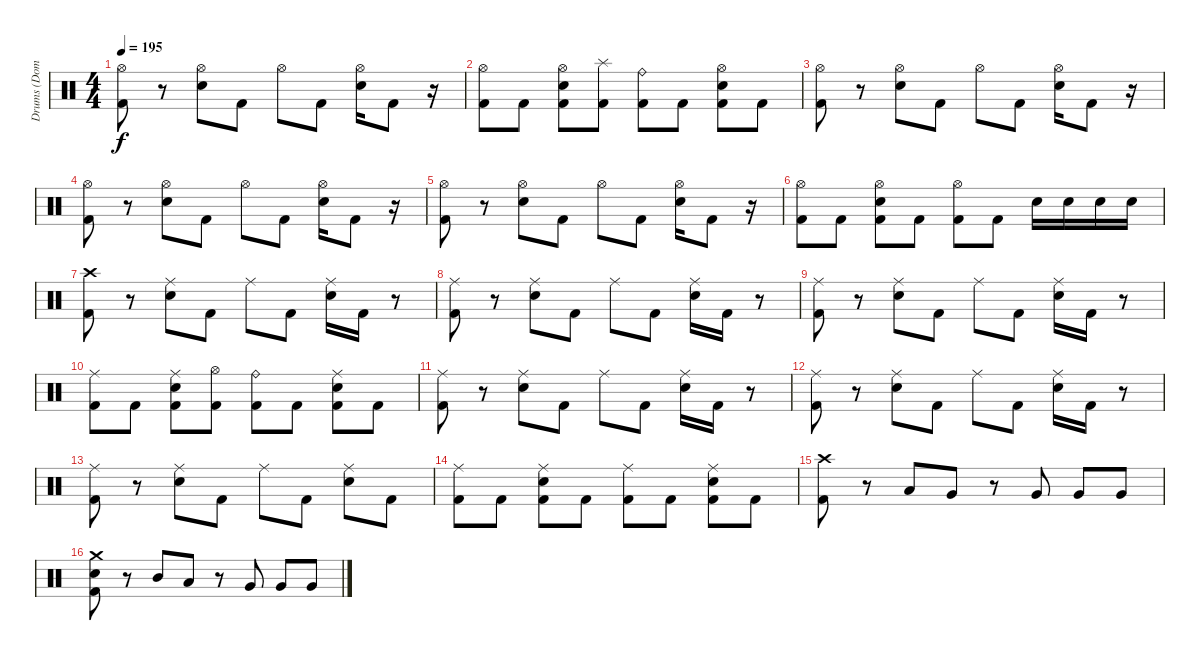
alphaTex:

\track ("Drums (Dominik)" "Drums (Dom") {instrument percussion}
\staff {score}
\articulation defaults
\ts (4 4)
\tempo 195
\clef neutral
\ks c
("Hi-Hat (open)" "Kick (hit) 2").8{dy f} r.8 ("Hi-Hat (open)" "Electric Snare (hit)").8 "Kick (hit) 2".8 "Hi-Hat (open)".8 "Kick (hit) 2".8 ("Hi-Hat (open)" "Electric Snare (hit)").16 "Kick (hit) 2".8 r.16 |
("Hi-Hat (open)" "Kick (hit) 2").8 "Kick (hit) 2".8 ("Hi-Hat (open)" "Electric Snare (hit)" "Kick (hit) 2").8 ("Splash (hit)" "Kick (hit) 2").8 ("Ride (bell)" "Kick (hit) 2").8 "Kick (hit) 2".8 ("Hi-Hat (open)" "Electric Snare (hit)" "Kick (hit) 2").8 "Kick (hit) 2".8 |
("Hi-Hat (open)" "Kick (hit) 2").8 r.8 ("Hi-Hat (open)" "Electric Snare (hit)").8 "Kick (hit) 2".8 "Hi-Hat (open)".8 "Kick (hit) 2".8 ("Hi-Hat (open)" "Electric Snare (hit)").16 "Kick (hit) 2".8 r.16 |
("Hi-Hat (open)" "Kick (hit) 2").8 r.8 ("Hi-Hat (open)" "Electric Snare (hit)").8 "Kick (hit) 2".8 "Hi-Hat (open)".8 "Kick (hit) 2".8 ("Hi-Hat (open)" "Electric Snare (hit)").16 "Kick (hit) 2".8 r.16 |
("Hi-Hat (open)" "Kick (hit) 2").8 r.8 ("Hi-Hat (open)" "Electric Snare (hit)").8 "Kick (hit) 2".8 "Hi-Hat (open)".8 "Kick (hit) 2".8 ("Hi-Hat (open)" "Electric Snare (hit)").16 "Kick (hit) 2".8 r.16 |
("Hi-Hat (open)" "Kick (hit) 2").8 "Kick (hit) 2".8 ("Hi-Hat (open)" "Electric Snare (hit)" "Kick (hit) 2").8 "Kick (hit) 2".8 ("Hi-Hat (open)" "Kick (hit) 2").8 "Kick (hit) 2".8 "Electric Snare (hit)".16 "Electric Snare (hit)".16 "Electric Snare (hit)".16 "Electric Snare (hit)".16 |
("Crash high (hit)" "Kick (hit) 2").8 r.8 ("Ride (middle)" "Electric Snare (hit)").8 "Kick (hit) 2".8 "Ride (middle)".8 "Kick (hit) 2".8 ("Ride (middle)" "Electric Snare (hit)").16 "Kick (hit) 2".16 r.8 |
("Ride (middle)" "Kick (hit) 2").8 r.8 ("Ride (middle)" "Electric Snare (hit)").8 "Kick (hit) 2".8 "Ride (middle)".8 "Kick (hit) 2".8 ("Ride (middle)" "Electric Snare (hit)").16 "Kick (hit) 2".16 r.8 |
("Ride (middle)" "Kick (hit) 2").8 r.8 ("Ride (middle)" "Electric Snare (hit)").8 "Kick (hit) 2".8 "Ride (middle)".8 "Kick (hit) 2".8 ("Ride (middle)" "Electric Snare (hit)").16 "Kick (hit) 2".16 r.8 |
("Ride (middle)" "Kick (hit) 2").8 "Kick (hit) 2".8 ("Ride (middle)" "Electric Snare (hit)" "Kick (hit) 2").8 ("Hi-Hat (open)" "Kick (hit) 2").8 ("Ride (bell)" "Kick (hit) 2").8 "Kick (hit) 2".8 ("Ride (middle)" "Electric Snare (hit)" "Kick (hit) 2").8 "Kick (hit) 2".8 |
("Ride (middle)" "Kick (hit) 2").8 r.8 ("Ride (middle)" "Electric Snare (hit)").8 "Kick (hit) 2".8 "Ride (middle)".8 "Kick (hit) 2".8 ("Ride (middle)" "Electric Snare (hit)").16 "Kick (hit) 2".16 r.8 |
("Ride (middle)" "Kick (hit) 2").8 r.8 ("Ride (middle)" "Electric Snare (hit)").8 "Kick (hit) 2".8 "Ride (middle)".8 "Kick (hit) 2".8 ("Ride (middle)" "Electric Snare (hit)").16 "Kick (hit) 2".16 r.8 |
("Ride (middle)" "Kick (hit) 2").8 r.8 ("Ride (middle)" "Electric Snare (hit)").8 "Kick (hit) 2".8 "Ride (middle)".8 "Kick (hit) 2".8 ("Ride (middle)" "Electric Snare (hit)").8 "Kick (hit) 2".8 |
("Ride (middle)" "Kick (hit) 2").8 "Kick (hit) 2".8 ("Ride (middle)" "Electric Snare (hit)" "Kick (hit) 2").8 "Kick (hit) 2".8 ("Ride (middle)" "Kick (hit) 2").8 "Kick (hit) 2".8 ("Ride (middle)" "Electric Snare (hit)" "Kick (hit) 2").8 "Kick (hit) 2".8 |
("Crash high (hit)" "Kick (hit) 2").8 r.8 "Low Tom (hit)".8 "Very Low Tom (hit)".8 r.8 "Very Low Tom (hit)".8 "Very Low Tom (hit)".8 "Very Low Tom (hit)".8 |
("Crash medium (hit)" "Electric Snare (hit)" "Kick (hit) 2").8 r.8 "Mid Tom (hit)".8 "Low Tom (hit)".8 r.8 "Very Low Tom (hit)".8 "Very Low Tom (hit)".8 "Very Low Tom (hit)".8
